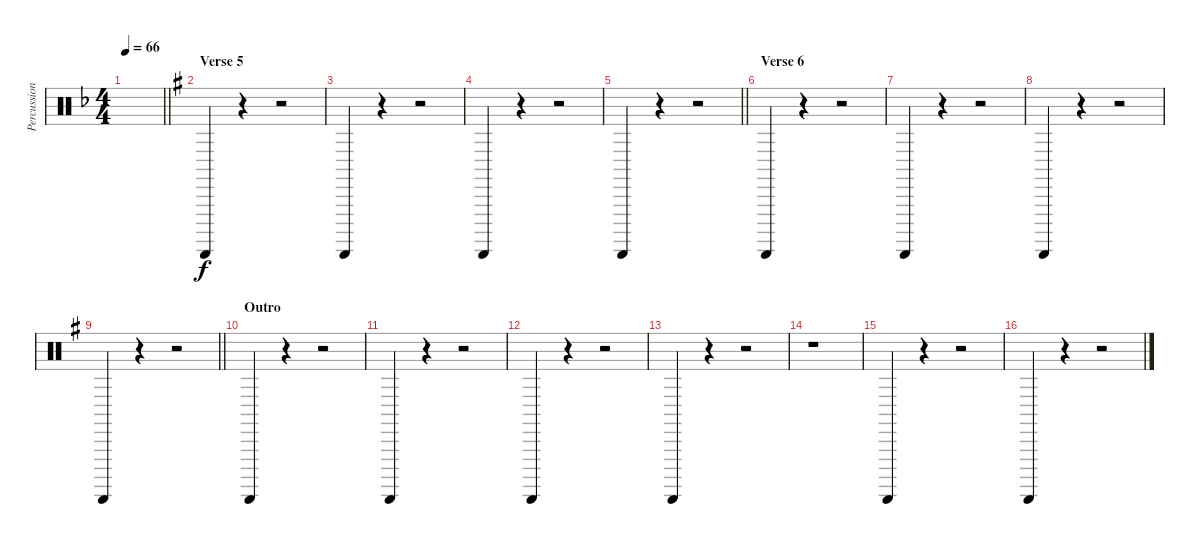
\track ("Percussion" "Percussion") {instrument percussion}
\staff {score}
\articulation defaults
\ts (4 4)
\tempo 66
\clef neutral
\barLineRight lightlight
\ks f
|
\section ("" "Verse 5")
\ks g "Guiro (scrap-return)".4
r.4 r.2 |
"Guiro (scrap-return)".4 r.4 r.2 |
"Guiro (scrap-return)".4 r.4 r.2 |
\barLineRight lightlight "Guiro (scrap-return)".4
r.4 r.2 |
\section ("" "Verse 6")
"Guiro (scrap-return)".4 r.4 r.2 |
"Guiro (scrap-return)".4 r.4 r.2 |
"Guiro (scrap-return)".4 r.4 r.2 |
\barLineRight lightlight "Guiro (scrap-return)".4
r.4 r.2 |
\section ("" "Outro")
"Guiro (scrap-return)".4 r.4 r.2 |
"Guiro (scrap-return)".4 r.4 r.2 |
"Guiro (scrap-return)".4 r.4 r.2 |
"Guiro (scrap-return)".4 r.4 r.2 |
r.1 |
"Guiro (scrap-return)".4 r.4 r.2 |
"Guiro (scrap-return)".4 r.4 r.2
